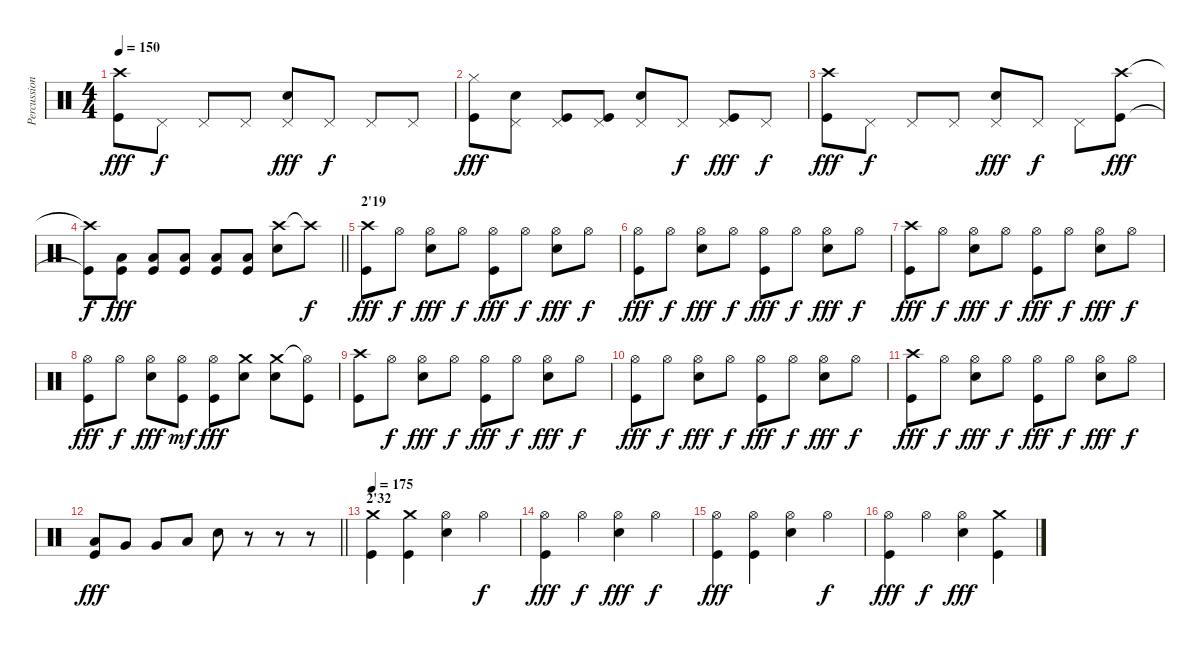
\track ("Percussions" "Percussion") {instrument percussion}
\staff {score}
\articulation defaults
\ts (4 4)
\tempo 150
\clef neutral
\ks c
("Crash high (hit)" "Kick (hit)").8{dy fff} "Pedal Hi-Hat (hit)".8{dy f} "Pedal Hi-Hat (hit)".8 "Pedal Hi-Hat (hit)".8 ("Pedal Hi-Hat (hit)" "Electric Snare (hit)").8{dy fff} "Pedal Hi-Hat (hit)".8{dy f} "Pedal Hi-Hat (hit)".8 "Pedal Hi-Hat (hit)".8 |
("Hi-Hat (closed)" "Kick (hit)").8{dy fff} ("Pedal Hi-Hat (hit)" "Electric Snare (hit)").8 ("Pedal Hi-Hat (hit)" "Kick (hit)").8 ("Pedal Hi-Hat (hit)" "Kick (hit)").8 ("Pedal Hi-Hat (hit)" "Electric Snare (hit)").8 "Pedal Hi-Hat (hit)".8{dy f} ("Pedal Hi-Hat (hit)" "Kick (hit)").8{dy fff} "Pedal Hi-Hat (hit)".8{dy f} |
("Crash high (hit)" "Kick (hit)").8{dy fff} "Pedal Hi-Hat (hit)".8{dy f} "Pedal Hi-Hat (hit)".8 "Pedal Hi-Hat (hit)".8 ("Pedal Hi-Hat (hit)" "Electric Snare (hit)").8{dy fff} "Pedal Hi-Hat (hit)".8{dy f} "Pedal Hi-Hat (hit)".8 ("Crash high (hit)" "Kick (hit)").8{dy fff} |
\barLineRight lightlight
("Crash high (hit)"{t} "Kick (hit)"{t}).8{dy f} ("Low Floor Tom (hit)" "Kick (hit)").8{dy fff} ("Low Floor Tom (hit)" "Kick (hit)").8 ("Low Floor Tom (hit)" "Kick (hit)").8 ("Low Floor Tom (hit)" "Kick (hit)").8 ("Low Floor Tom (hit)" "Kick (hit)").8 ("Crash high (hit)" "Electric Snare (hit)").8 "Crash high (hit)"{t}.8{dy f} |
\section ("" "2'19")
("Crash high (hit)" "Kick (hit)").8{dy fff} "Hi-Hat (open)".8{dy f} ("Hi-Hat (open)" "Electric Snare (hit)").8{dy fff} "Hi-Hat (open)".8{dy f} ("Hi-Hat (open)" "Kick (hit)").8{dy fff} "Hi-Hat (open)".8{dy f} ("Hi-Hat (open)" "Electric Snare (hit)").8{dy fff} "Hi-Hat (open)".8{dy f} |
("Hi-Hat (open)" "Kick (hit)").8{dy fff} "Hi-Hat (open)".8{dy f} ("Hi-Hat (open)" "Electric Snare (hit)").8{dy fff} "Hi-Hat (open)".8{dy f} ("Hi-Hat (open)" "Kick (hit)").8{dy fff} "Hi-Hat (open)".8{dy f} ("Hi-Hat (open)" "Electric Snare (hit)").8{dy fff} "Hi-Hat (open)".8{dy f} |
("Crash high (hit)" "Kick (hit)").8{dy fff} "Hi-Hat (open)".8{dy f} ("Hi-Hat (open)" "Electric Snare (hit)").8{dy fff} "Hi-Hat (open)".8{dy f} ("Hi-Hat (open)" "Kick (hit)").8{dy fff} "Hi-Hat (open)".8{dy f} ("Hi-Hat (open)" "Electric Snare (hit)").8{dy fff} "Hi-Hat (open)".8{dy f} |
("Hi-Hat (open)" "Kick (hit)").8{dy fff} "Hi-Hat (open)".8{dy f} ("Hi-Hat (open)" "Electric Snare (hit)").8{dy fff} ("Hi-Hat (open)" "Kick (hit)").8{dy mf} ("Hi-Hat (open)" "Kick (hit)").8{dy fff} ("Crash medium (hit)" "Electric Snare (hit)").8 ("Crash medium (hit)" "Electric Snare (hit)").8 ("Hi-Hat (open)"{t} "Kick (hit)").8 |
("Crash high (hit)" "Kick (hit)").8 "Hi-Hat (open)".8{dy f} ("Hi-Hat (open)" "Electric Snare (hit)").8{dy fff} "Hi-Hat (open)".8{dy f} ("Hi-Hat (open)" "Kick (hit)").8{dy fff} "Hi-Hat (open)".8{dy f} ("Hi-Hat (open)" "Electric Snare (hit)").8{dy fff} "Hi-Hat (open)".8{dy f} |
("Hi-Hat (open)" "Kick (hit)").8{dy fff} "Hi-Hat (open)".8{dy f} ("Hi-Hat (open)" "Electric Snare (hit)").8{dy fff} "Hi-Hat (open)".8{dy f} ("Hi-Hat (open)" "Kick (hit)").8{dy fff} "Hi-Hat (open)".8{dy f} ("Hi-Hat (open)" "Electric Snare (hit)").8{dy fff} "Hi-Hat (open)".8{dy f} |
("Crash high (hit)" "Kick (hit)").8{dy fff} "Hi-Hat (open)".8{dy f} ("Hi-Hat (open)" "Electric Snare (hit)").8{dy fff} "Hi-Hat (open)".8{dy f} ("Hi-Hat (open)" "Kick (hit)").8{dy fff} "Hi-Hat (open)".8{dy f} ("Hi-Hat (open)" "Electric Snare (hit)").8{dy fff} "Hi-Hat (open)".8{dy f} |
\barLineRight lightlight
("Low Floor Tom (hit)" "Kick (hit)").8{dy fff} "Very Low Tom (hit)".8 "Very Low Tom (hit)".8 "Low Floor Tom (hit)".8 "Electric Snare (hit)".8 r.8 r.8 r.8 |
\section ("" "2'32")
\tempo 175
("Crash medium (hit)" "Kick (hit)").4 ("Crash medium (hit)" "Kick (hit)").4 ("Hi-Hat (open)" "Electric Snare (hit)").4 "Hi-Hat (open)".4{dy f} |
("Hi-Hat (open)" "Kick (hit)").4{dy fff} "Hi-Hat (open)".4{dy f} ("Hi-Hat (open)" "Electric Snare (hit)").4{dy fff} "Hi-Hat (open)".4{dy f} |
("Hi-Hat (open)" "Kick (hit)").4{dy fff} ("Hi-Hat (open)" "Kick (hit)").4 ("Hi-Hat (open)" "Electric Snare (hit)").4 "Hi-Hat (open)".4{dy f} |
("Hi-Hat (open)" "Kick (hit)").4{dy fff} "Hi-Hat (open)".4{dy f} ("Hi-Hat (open)" "Electric Snare (hit)").4{dy fff} ("Crash medium (hit)" "Kick (hit)").4
